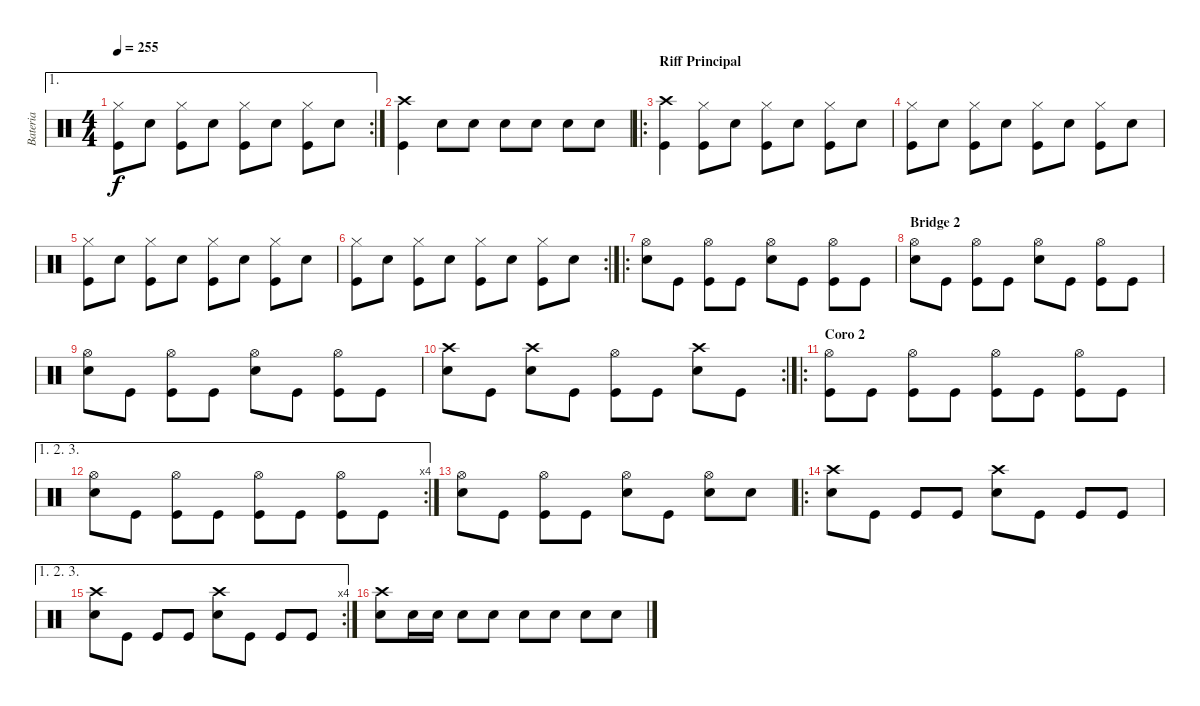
\track ("Bateria" "Bateria") {instrument percussion}
\staff {score}
\articulation defaults
\ae 1
\rc 2
\ts (4 4)
\tempo 255
\clef neutral
\ks c
("Kick (hit)" "Hi-Hat (closed)").8{dy f} "Electric Snare (hit)".8 ("Kick (hit)" "Hi-Hat (closed)").8 "Electric Snare (hit)".8 ("Kick (hit)" "Hi-Hat (closed)").8 "Electric Snare (hit)".8 ("Kick (hit)" "Hi-Hat (closed)").8 "Electric Snare (hit)".8 |
("Kick (hit)" "Crash high (hit)").4 "Electric Snare (hit)".8 "Electric Snare (hit)".8 "Electric Snare (hit)".8 "Electric Snare (hit)".8 "Electric Snare (hit)".8 "Electric Snare (hit)".8 |
\ro
\section ("" "Riff Principal")
("Kick (hit)" "Crash high (hit)").4 ("Kick (hit)" "Hi-Hat (closed)").8 "Electric Snare (hit)".8 ("Kick (hit)" "Hi-Hat (closed)").8 "Electric Snare (hit)".8 ("Kick (hit)" "Hi-Hat (closed)").8 "Electric Snare (hit)".8 |
("Kick (hit)" "Hi-Hat (closed)").8 "Electric Snare (hit)".8 ("Kick (hit)" "Hi-Hat (closed)").8 "Electric Snare (hit)".8 ("Kick (hit)" "Hi-Hat (closed)").8 "Electric Snare (hit)".8 ("Kick (hit)" "Hi-Hat (closed)").8 "Electric Snare (hit)".8 |
("Kick (hit)" "Hi-Hat (closed)").8 "Electric Snare (hit)".8 ("Kick (hit)" "Hi-Hat (closed)").8 "Electric Snare (hit)".8 ("Kick (hit)" "Hi-Hat (closed)").8 "Electric Snare (hit)".8 ("Kick (hit)" "Hi-Hat (closed)").8 "Electric Snare (hit)".8 |
\rc 2
("Kick (hit)" "Hi-Hat (closed)").8 "Electric Snare (hit)".8 ("Kick (hit)" "Hi-Hat (closed)").8 "Electric Snare (hit)".8 ("Kick (hit)" "Hi-Hat (closed)").8 "Electric Snare (hit)".8 ("Kick (hit)" "Hi-Hat (closed)").8 "Electric Snare (hit)".8 |
\ro
("Electric Snare (hit)" "Hi-Hat (open)").8 "Kick (hit)".8 ("Kick (hit)" "Hi-Hat (open)").8 "Kick (hit)".8 ("Electric Snare (hit)" "Hi-Hat (open)").8 "Kick (hit)".8 ("Kick (hit)" "Hi-Hat (open)").8 "Kick (hit)".8 |
\section ("" "Bridge 2")
("Electric Snare (hit)" "Hi-Hat (open)").8 "Kick (hit)".8 ("Kick (hit)" "Hi-Hat (open)").8 "Kick (hit)".8 ("Electric Snare (hit)" "Hi-Hat (open)").8 "Kick (hit)".8 ("Kick (hit)" "Hi-Hat (open)").8 "Kick (hit)".8 |
("Electric Snare (hit)" "Hi-Hat (open)").8 "Kick (hit)".8 ("Kick (hit)" "Hi-Hat (open)").8 "Kick (hit)".8 ("Electric Snare (hit)" "Hi-Hat (open)").8 "Kick (hit)".8 ("Kick (hit)" "Hi-Hat (open)").8 "Kick (hit)".8 |
\rc 2
("Electric Snare (hit)" "Crash high (hit)").8 "Kick (hit)".8 ("Electric Snare (hit)" "Crash high (hit)").8 "Kick (hit)".8 ("Kick (hit)" "Hi-Hat (open)").8 "Kick (hit)".8 ("Electric Snare (hit)" "Crash high (hit)").8 "Kick (hit)".8 |
\ro
\section ("" "Coro 2")
("Kick (hit)" "Hi-Hat (open)").8 "Kick (hit)".8 ("Kick (hit)" "Hi-Hat (open)").8 "Kick (hit)".8 ("Kick (hit)" "Hi-Hat (open)").8 "Kick (hit)".8 ("Kick (hit)" "Hi-Hat (open)").8 "Kick (hit)".8 |
\ae (1 2 3)
\rc 4
("Electric Snare (hit)" "Hi-Hat (open)").8 "Kick (hit)".8 ("Kick (hit)" "Hi-Hat (open)").8 "Kick (hit)".8 ("Kick (hit)" "Hi-Hat (open)").8 "Kick (hit)".8 ("Kick (hit)" "Hi-Hat (open)").8 "Kick (hit)".8 |
("Electric Snare (hit)" "Hi-Hat (open)").8 "Kick (hit)".8 ("Kick (hit)" "Hi-Hat (open)").8 "Kick (hit)".8 ("Electric Snare (hit)" "Hi-Hat (open)").8 "Kick (hit)".8 ("Electric Snare (hit)" "Hi-Hat (open)").8 "Electric Snare (hit)".8 |
\ro
("Electric Snare (hit)" "Crash high (hit)").8 "Kick (hit)".8 "Kick (hit)".8 "Kick (hit)".8 ("Electric Snare (hit)" "Crash high (hit)").8 "Kick (hit)".8 "Kick (hit)".8 "Kick (hit)".8 |
\ae (1 2 3)
\rc 4
("Electric Snare (hit)" "Crash high (hit)").8 "Kick (hit)".8 "Kick (hit)".8 "Kick (hit)".8 ("Electric Snare (hit)" "Crash high (hit)").8 "Kick (hit)".8 "Kick (hit)".8 "Kick (hit)".8 |
("Electric Snare (hit)" "Crash high (hit)").8 "Electric Snare (hit)".16 "Electric Snare (hit)".16 "Electric Snare (hit)".8 "Electric Snare (hit)".8 "Electric Snare (hit)".8 "Electric Snare (hit)".8 "Electric Snare (hit)".8 "Electric Snare (hit)".8
